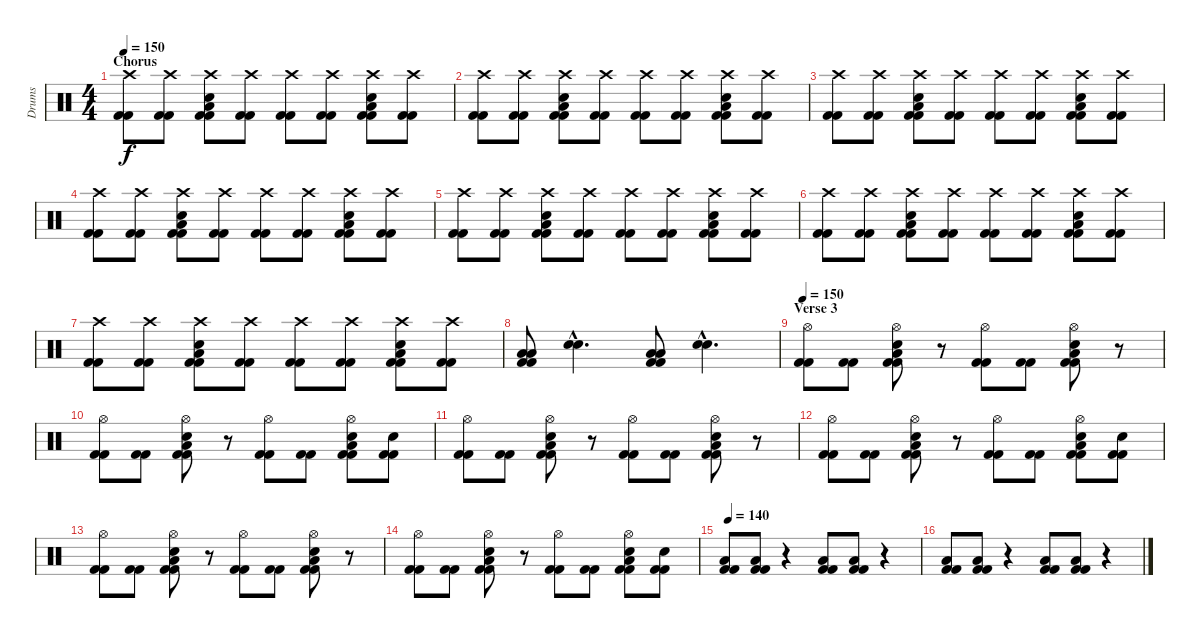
\track ("Drums" "Drums") {instrument percussion}
\staff {score}
\articulation defaults
\ts (4 4)
\section ("" "Chorus")
\tempo 150
\clef neutral
\ks c
("Crash high (hit)" "Kick (hit) 2" "Kick (hit) 2").8{dy f} ("Crash high (hit)" "Kick (hit) 2" "Kick (hit) 2").8 ("Crash high (hit)" "Low Tom (hit)" "Snare (hit) 2" "Kick (hit) 2" "Kick (hit) 2").8 ("Crash high (hit)" "Kick (hit) 2" "Kick (hit) 2").8 ("Crash high (hit)" "Kick (hit) 2" "Kick (hit) 2").8 ("Crash high (hit)" "Kick (hit) 2" "Kick (hit) 2").8 ("Crash high (hit)" "Low Tom (hit)" "Snare (hit) 2" "Kick (hit) 2" "Kick (hit) 2").8 ("Crash high (hit)" "Kick (hit) 2" "Kick (hit) 2").8 |
("Crash high (hit)" "Kick (hit) 2" "Kick (hit) 2").8 ("Crash high (hit)" "Kick (hit) 2" "Kick (hit) 2").8 ("Crash high (hit)" "Low Tom (hit)" "Snare (hit) 2" "Kick (hit) 2" "Kick (hit) 2").8 ("Crash high (hit)" "Kick (hit) 2" "Kick (hit) 2").8 ("Crash high (hit)" "Kick (hit) 2" "Kick (hit) 2").8 ("Crash high (hit)" "Kick (hit) 2" "Kick (hit) 2").8 ("Crash high (hit)" "Low Tom (hit)" "Snare (hit) 2" "Kick (hit) 2" "Kick (hit) 2").8 ("Crash high (hit)" "Kick (hit) 2" "Kick (hit) 2").8 |
("Crash high (hit)" "Kick (hit) 2" "Kick (hit) 2").8 ("Crash high (hit)" "Kick (hit) 2" "Kick (hit) 2").8 ("Crash high (hit)" "Low Tom (hit)" "Snare (hit) 2" "Kick (hit) 2" "Kick (hit) 2").8 ("Crash high (hit)" "Kick (hit) 2" "Kick (hit) 2").8 ("Crash high (hit)" "Kick (hit) 2" "Kick (hit) 2").8 ("Crash high (hit)" "Kick (hit) 2" "Kick (hit) 2").8 ("Crash high (hit)" "Low Tom (hit)" "Snare (hit) 2" "Kick (hit) 2" "Kick (hit) 2").8 ("Crash high (hit)" "Kick (hit) 2" "Kick (hit) 2").8 |
("Crash high (hit)" "Kick (hit) 2" "Kick (hit) 2").8 ("Crash high (hit)" "Kick (hit) 2" "Kick (hit) 2").8 ("Crash high (hit)" "Low Tom (hit)" "Snare (hit) 2" "Kick (hit) 2" "Kick (hit) 2").8 ("Crash high (hit)" "Kick (hit) 2" "Kick (hit) 2").8 ("Crash high (hit)" "Kick (hit) 2" "Kick (hit) 2").8 ("Crash high (hit)" "Kick (hit) 2" "Kick (hit) 2").8 ("Crash high (hit)" "Low Tom (hit)" "Snare (hit) 2" "Kick (hit) 2" "Kick (hit) 2").8 ("Crash high (hit)" "Kick (hit) 2" "Kick (hit) 2").8 |
("Crash high (hit)" "Kick (hit) 2" "Kick (hit) 2").8 ("Crash high (hit)" "Kick (hit) 2" "Kick (hit) 2").8 ("Crash high (hit)" "Low Tom (hit)" "Snare (hit) 2" "Kick (hit) 2" "Kick (hit) 2").8 ("Crash high (hit)" "Kick (hit) 2" "Kick (hit) 2").8 ("Crash high (hit)" "Kick (hit) 2" "Kick (hit) 2").8 ("Crash high (hit)" "Kick (hit) 2" "Kick (hit) 2").8 ("Crash high (hit)" "Low Tom (hit)" "Snare (hit) 2" "Kick (hit) 2" "Kick (hit) 2").8 ("Crash high (hit)" "Kick (hit) 2" "Kick (hit) 2").8 |
("Crash high (hit)" "Kick (hit) 2" "Kick (hit) 2").8 ("Crash high (hit)" "Kick (hit) 2" "Kick (hit) 2").8 ("Crash high (hit)" "Low Tom (hit)" "Snare (hit) 2" "Kick (hit) 2" "Kick (hit) 2").8 ("Crash high (hit)" "Kick (hit) 2" "Kick (hit) 2").8 ("Crash high (hit)" "Kick (hit) 2" "Kick (hit) 2").8 ("Crash high (hit)" "Kick (hit) 2" "Kick (hit) 2").8 ("Crash high (hit)" "Low Tom (hit)" "Snare (hit) 2" "Kick (hit) 2" "Kick (hit) 2").8 ("Crash high (hit)" "Kick (hit) 2" "Kick (hit) 2").8 |
("Crash high (hit)" "Kick (hit) 2" "Kick (hit) 2").8 ("Crash high (hit)" "Kick (hit) 2" "Kick (hit) 2").8 ("Crash high (hit)" "Low Tom (hit)" "Snare (hit) 2" "Kick (hit) 2" "Kick (hit) 2").8 ("Crash high (hit)" "Kick (hit) 2" "Kick (hit) 2").8 ("Crash high (hit)" "Kick (hit) 2" "Kick (hit) 2").8 ("Crash high (hit)" "Kick (hit) 2" "Kick (hit) 2").8 ("Crash high (hit)" "Low Tom (hit)" "Snare (hit) 2" "Kick (hit) 2" "Kick (hit) 2").8 ("Crash high (hit)" "Kick (hit) 2" "Kick (hit) 2").8 |
("Low Tom (hit)" "Low Tom (hit)" "Kick (hit) 2" "Kick (hit) 2").8 ("Snare (hit) 2"{hac} "Snare (hit) 2"{hac}).4{d} ("Low Tom (hit)" "Low Tom (hit)" "Kick (hit) 2" "Kick (hit) 2").8 ("Snare (hit) 2"{hac} "Snare (hit) 2"{hac}).4{d} |
\section ("" "Verse 3")
\tempo 150
("Hi-Hat (open)" "Kick (hit) 2" "Kick (hit) 2").8 ("Kick (hit) 2" "Kick (hit) 2").8 ("Hi-Hat (open)" "Low Tom (hit)" "Snare (hit) 2" "Kick (hit) 2" "Kick (hit) 2").8 r.8 ("Hi-Hat (open)" "Kick (hit) 2" "Kick (hit) 2").8 ("Kick (hit) 2" "Kick (hit) 2").8 ("Hi-Hat (open)" "Low Tom (hit)" "Snare (hit) 2" "Kick (hit) 2" "Kick (hit) 2").8 r.8 |
("Hi-Hat (open)" "Kick (hit) 2" "Kick (hit) 2").8 ("Kick (hit) 2" "Kick (hit) 2").8 ("Hi-Hat (open)" "Low Tom (hit)" "Snare (hit) 2" "Kick (hit) 2" "Kick (hit) 2").8 r.8 ("Hi-Hat (open)" "Kick (hit) 2" "Kick (hit) 2").8 ("Kick (hit) 2" "Kick (hit) 2").8 ("Hi-Hat (open)" "Low Tom (hit)" "Snare (hit) 2" "Kick (hit) 2" "Kick (hit) 2").8 ("Snare (hit) 2" "Kick (hit) 2" "Kick (hit) 2").8 |
("Hi-Hat (open)" "Kick (hit) 2" "Kick (hit) 2").8 ("Kick (hit) 2" "Kick (hit) 2").8 ("Hi-Hat (open)" "Low Tom (hit)" "Snare (hit) 2" "Kick (hit) 2" "Kick (hit) 2").8 r.8 ("Hi-Hat (open)" "Kick (hit) 2" "Kick (hit) 2").8 ("Kick (hit) 2" "Kick (hit) 2").8 ("Hi-Hat (open)" "Low Tom (hit)" "Snare (hit) 2" "Kick (hit) 2" "Kick (hit) 2").8 r.8 |
("Hi-Hat (open)" "Kick (hit) 2" "Kick (hit) 2").8 ("Kick (hit) 2" "Kick (hit) 2").8 ("Hi-Hat (open)" "Low Tom (hit)" "Snare (hit) 2" "Kick (hit) 2" "Kick (hit) 2").8 r.8 ("Hi-Hat (open)" "Kick (hit) 2" "Kick (hit) 2").8 ("Kick (hit) 2" "Kick (hit) 2").8 ("Hi-Hat (open)" "Low Tom (hit)" "Snare (hit) 2" "Kick (hit) 2" "Kick (hit) 2").8 ("Snare (hit) 2" "Kick (hit) 2" "Kick (hit) 2").8 |
("Hi-Hat (open)" "Kick (hit) 2" "Kick (hit) 2").8 ("Kick (hit) 2" "Kick (hit) 2").8 ("Hi-Hat (open)" "Low Tom (hit)" "Snare (hit) 2" "Kick (hit) 2" "Kick (hit) 2").8 r.8 ("Hi-Hat (open)" "Kick (hit) 2" "Kick (hit) 2").8 ("Kick (hit) 2" "Kick (hit) 2").8 ("Hi-Hat (open)" "Low Tom (hit)" "Snare (hit) 2" "Kick (hit) 2" "Kick (hit) 2").8 r.8 |
("Hi-Hat (open)" "Kick (hit) 2" "Kick (hit) 2").8 ("Kick (hit) 2" "Kick (hit) 2").8 ("Hi-Hat (open)" "Low Tom (hit)" "Snare (hit) 2" "Kick (hit) 2" "Kick (hit) 2").8 r.8 ("Hi-Hat (open)" "Kick (hit) 2" "Kick (hit) 2").8 ("Kick (hit) 2" "Kick (hit) 2").8 ("Hi-Hat (open)" "Low Tom (hit)" "Snare (hit) 2" "Kick (hit) 2" "Kick (hit) 2").8 ("Snare (hit) 2" "Kick (hit) 2" "Kick (hit) 2").8 |
\tempo 130
\tempo 140
("Low Tom (hit)" "Kick (hit) 2" "Kick (hit) 2").8 ("Low Tom (hit)" "Kick (hit) 2" "Kick (hit) 2").8 r.4 ("Low Tom (hit)" "Kick (hit) 2" "Kick (hit) 2").8 ("Low Tom (hit)" "Kick (hit) 2" "Kick (hit) 2").8 r.4 |
("Low Tom (hit)" "Kick (hit) 2" "Kick (hit) 2").8 ("Low Tom (hit)" "Kick (hit) 2" "Kick (hit) 2").8 r.4 ("Low Tom (hit)" "Kick (hit) 2" "Kick (hit) 2").8 ("Low Tom (hit)" "Kick (hit) 2" "Kick (hit) 2").8 r.4
